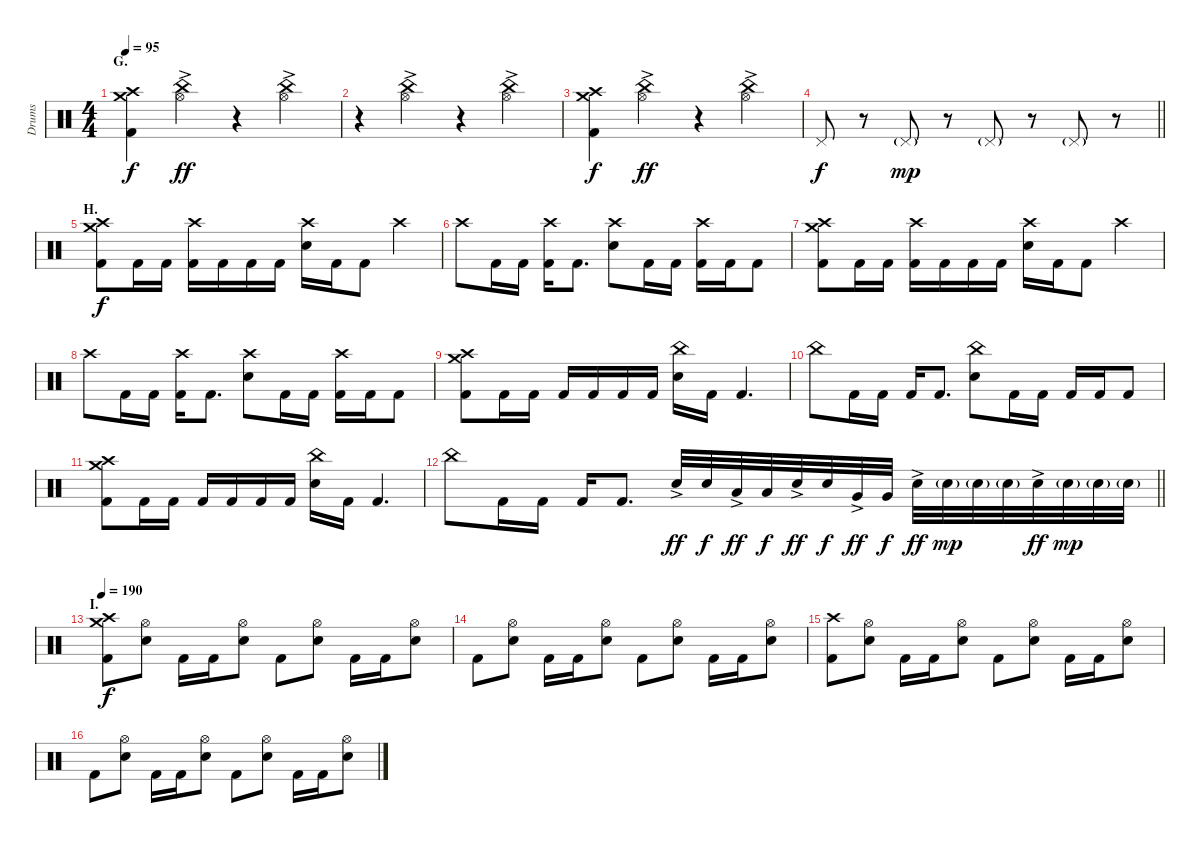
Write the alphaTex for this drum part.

\track ("Drums" "Drums") {instrument percussion}
\staff {score}
\articulation defaults
\ts (4 4)
\section ("" "G.")
\tempo 95
\clef neutral
\ks c
("Crash medium (hit)" "Crash high (hit)" "Kick (hit) 2").4{dy f} ("China (hit)" "Hi-Hat (open)"{ac}).4{dy ff} r.4 ("China (hit)" "Hi-Hat (open)"{ac}).4 |
r.4 ("China (hit)" "Hi-Hat (open)"{ac}).4 r.4 ("China (hit)" "Hi-Hat (open)"{ac}).4 |
("Crash medium (hit)" "Crash high (hit)" "Kick (hit) 2").4{dy f} ("China (hit)" "Hi-Hat (open)"{ac}).4{dy ff} r.4 ("China (hit)" "Hi-Hat (open)"{ac}).4 |
\barLineRight lightlight "Pedal Hi-Hat (hit)".8{dy f}
r.8 "Pedal Hi-Hat (hit)"{g}.8{dy mp} r.8 "Pedal Hi-Hat (hit)"{g}.8 r.8 "Pedal Hi-Hat (hit)"{g}.8 r.8 |
\section ("" "H.")
("Crash medium (hit)" "Crash high (hit)" "Kick (hit) 2").8{dy f} "Kick (hit) 2".16 "Kick (hit) 2".16 ("Crash high (hit)" "Kick (hit) 2").16 "Kick (hit) 2".16 "Kick (hit) 2".16 "Kick (hit) 2".16 ("Crash high (hit)" "Electric Snare (hit)").16 "Kick (hit) 2".16 "Kick (hit) 2".8 "Crash high (hit)".4 |
"Crash high (hit)".8 "Kick (hit) 2".16 "Kick (hit) 2".16 ("Crash high (hit)" "Kick (hit) 2").16 "Kick (hit) 2".8{d} ("Crash high (hit)" "Electric Snare (hit)").8 "Kick (hit) 2".16 "Kick (hit) 2".16 ("Crash high (hit)" "Kick (hit) 2").16 "Kick (hit) 2".16 "Kick (hit) 2".8 |
("Crash medium (hit)" "Crash high (hit)" "Kick (hit) 2").8 "Kick (hit) 2".16 "Kick (hit) 2".16 ("Crash high (hit)" "Kick (hit) 2").16 "Kick (hit) 2".16 "Kick (hit) 2".16 "Kick (hit) 2".16 ("Crash high (hit)" "Electric Snare (hit)").16 "Kick (hit) 2".16 "Kick (hit) 2".8 "Crash high (hit)".4 |
"Crash high (hit)".8 "Kick (hit) 2".16 "Kick (hit) 2".16 ("Crash high (hit)" "Kick (hit) 2").16 "Kick (hit) 2".8{d} ("Crash high (hit)" "Electric Snare (hit)").8 "Kick (hit) 2".16 "Kick (hit) 2".16 ("Crash high (hit)" "Kick (hit) 2").16 "Kick (hit) 2".16 "Kick (hit) 2".8 |
("Crash medium (hit)" "Crash high (hit)" "Kick (hit) 2").8 "Kick (hit) 2".16 "Kick (hit) 2".16 "Kick (hit) 2".16 "Kick (hit) 2".16 "Kick (hit) 2".16 "Kick (hit) 2".16 ("China (hit)" "Electric Snare (hit)").16 "Kick (hit) 2".16 "Kick (hit) 2".4{d} |
"China (hit)".8 "Kick (hit) 2".16 "Kick (hit) 2".16 "Kick (hit) 2".16 "Kick (hit) 2".8{d} ("China (hit)" "Electric Snare (hit)").8 "Kick (hit) 2".16 "Kick (hit) 2".16 "Kick (hit) 2".16 "Kick (hit) 2".16 "Kick (hit) 2".8 |
("Crash medium (hit)" "Crash high (hit)" "Kick (hit) 2").8 "Kick (hit) 2".16 "Kick (hit) 2".16 "Kick (hit) 2".16 "Kick (hit) 2".16 "Kick (hit) 2".16 "Kick (hit) 2".16 ("China (hit)" "Electric Snare (hit)").16 "Kick (hit) 2".16 "Kick (hit) 2".4{d} |
\barLineRight lightlight "China (hit)".8 "Kick (hit) 2".16 "Kick (hit) 2".16 "Kick (hit) 2".16 "Kick (hit) 2".8{d} "Electric Snare (hit)"{ac}.32{dy ff} "Electric Snare (hit)".32{dy f} "Low Tom (hit)"{ac}.32{dy ff} "Low Tom (hit)".32{dy f} "Electric Snare (hit)"{ac}.32{dy ff} "Electric Snare (hit)".32{dy f} "Very Low Tom (hit)"{ac}.32{dy ff} "Very Low Tom (hit)".32{dy f} "Electric Snare (hit)"{ac}.32{dy ff} "Electric Snare (hit)"{g}.32{dy mp} "Electric Snare (hit)"{g}.32 "Electric Snare (hit)"{g}.32 "Electric Snare (hit)"{ac}.32{dy ff} "Electric Snare (hit)"{g}.32{dy mp} "Electric Snare (hit)"{g}.32 "Electric Snare (hit)"{g}.32
|
\section ("" "I.")
\tempo 190
("Crash medium (hit)" "Crash high (hit)" "Kick (hit) 2").8{dy f} ("Hi-Hat (open)" "Electric Snare (hit)").8 "Kick (hit) 2".16 "Kick (hit) 2".16 ("Hi-Hat (open)" "Electric Snare (hit)").8 "Kick (hit) 2".8 ("Hi-Hat (open)" "Electric Snare (hit)").8 "Kick (hit) 2".16 "Kick (hit) 2".16 ("Hi-Hat (open)" "Electric Snare (hit)").8 |
"Kick (hit) 2".8 ("Hi-Hat (open)" "Electric Snare (hit)").8 "Kick (hit) 2".16 "Kick (hit) 2".16 ("Hi-Hat (open)" "Electric Snare (hit)").8 "Kick (hit) 2".8 ("Hi-Hat (open)" "Electric Snare (hit)").8 "Kick (hit) 2".16 "Kick (hit) 2".16 ("Hi-Hat (open)" "Electric Snare (hit)").8 |
("Crash high (hit)" "Kick (hit) 2").8 ("Hi-Hat (open)" "Electric Snare (hit)").8 "Kick (hit) 2".16 "Kick (hit) 2".16 ("Hi-Hat (open)" "Electric Snare (hit)").8 "Kick (hit) 2".8 ("Hi-Hat (open)" "Electric Snare (hit)").8 "Kick (hit) 2".16 "Kick (hit) 2".16 ("Hi-Hat (open)" "Electric Snare (hit)").8 |
"Kick (hit) 2".8 ("Hi-Hat (open)" "Electric Snare (hit)").8 "Kick (hit) 2".16 "Kick (hit) 2".16 ("Hi-Hat (open)" "Electric Snare (hit)").8 "Kick (hit) 2".8 ("Hi-Hat (open)" "Electric Snare (hit)").8 "Kick (hit) 2".16 "Kick (hit) 2".16 ("Hi-Hat (open)" "Electric Snare (hit)").8
